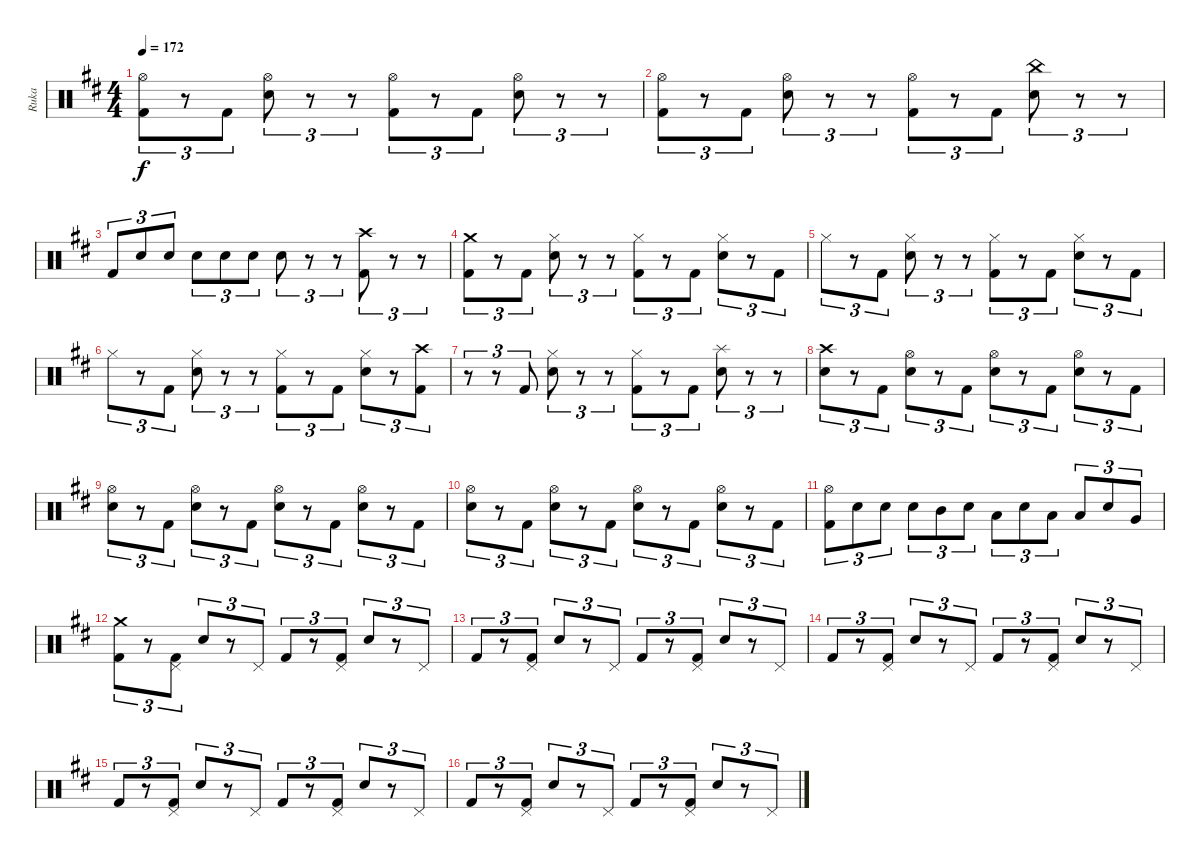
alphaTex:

\track ("Ruka" "Ruka") {instrument percussion}
\staff {score}
\articulation defaults
\ts (4 4)
\tempo 172
\clef neutral
\ks bminor
("Kick (hit) 2" "Hi-Hat (open)").8{tu (3 2) dy f} r.8{tu (3 2)} "Kick (hit) 2".8{tu (3 2)} ("Electric Snare (hit)" "Hi-Hat (open)").8{tu (3 2)} r.8{tu (3 2)} r.8{tu (3 2)} ("Kick (hit) 2" "Hi-Hat (open)").8{tu (3 2)} r.8{tu (3 2)} "Kick (hit) 2".8{tu (3 2)} ("Electric Snare (hit)" "Hi-Hat (open)").8{tu (3 2)} r.8{tu (3 2)} r.8{tu (3 2)} |
("Kick (hit) 2" "Hi-Hat (open)").8{tu (3 2)} r.8{tu (3 2)} "Kick (hit) 2".8{tu (3 2)} ("Electric Snare (hit)" "Hi-Hat (open)").8{tu (3 2)} r.8{tu (3 2)} r.8{tu (3 2)} ("Kick (hit) 2" "Hi-Hat (open)").8{tu (3 2)} r.8{tu (3 2)} "Kick (hit) 2".8{tu (3 2)} ("Electric Snare (hit)" "China (hit)").8{tu (3 2)} r.8{tu (3 2)} r.8{tu (3 2)} |
"Kick (hit) 2".8{tu (3 2)} "Electric Snare (hit)".8{tu (3 2)} "Electric Snare (hit)".8{tu (3 2)} "Electric Snare (hit)".8{tu (3 2)} "Electric Snare (hit)".8{tu (3 2)} "Electric Snare (hit)".8{tu (3 2)} "Electric Snare (hit)".8{tu (3 2)} r.8{tu (3 2)} r.8{tu (3 2)} ("Kick (hit) 2" "Crash high (hit)").8{tu (3 2)} r.8{tu (3 2)} r.8{tu (3 2)} |
("Kick (hit) 2" "Crash medium (hit)").8{tu (3 2)} r.8{tu (3 2)} "Kick (hit) 2".8{tu (3 2)} ("Electric Snare (hit)" "Hi-Hat (closed)").8{tu (3 2)} r.8{tu (3 2)} r.8{tu (3 2)} ("Kick (hit) 2" "Hi-Hat (closed)").8{tu (3 2)} r.8{tu (3 2)} "Kick (hit) 2".8{tu (3 2)} ("Electric Snare (hit)" "Hi-Hat (closed)").8{tu (3 2)} r.8{tu (3 2)} "Kick (hit) 2".8{tu (3 2)} |
"Hi-Hat (closed)".8{tu (3 2)} r.8{tu (3 2)} "Kick (hit) 2".8{tu (3 2)} ("Electric Snare (hit)" "Hi-Hat (closed)").8{tu (3 2)} r.8{tu (3 2)} r.8{tu (3 2)} ("Kick (hit) 2" "Hi-Hat (closed)").8{tu (3 2)} r.8{tu (3 2)} "Kick (hit) 2".8{tu (3 2)} ("Electric Snare (hit)" "Hi-Hat (closed)").8{tu (3 2)} r.8{tu (3 2)} "Kick (hit) 2".8{tu (3 2)} |
"Hi-Hat (closed)".8{tu (3 2)} r.8{tu (3 2)} "Kick (hit) 2".8{tu (3 2)} ("Electric Snare (hit)" "Hi-Hat (closed)").8{tu (3 2)} r.8{tu (3 2)} r.8{tu (3 2)} ("Kick (hit) 2" "Hi-Hat (closed)").8{tu (3 2)} r.8{tu (3 2)} "Kick (hit) 2".8{tu (3 2)} ("Electric Snare (hit)" "Hi-Hat (closed)").8{tu (3 2)} r.8{tu (3 2)} ("Kick (hit) 2" "Crash high (hit)").8{tu (3 2)} |
r.8{tu (3 2)} r.8{tu (3 2)} "Kick (hit) 2".8{tu (3 2)} ("Electric Snare (hit)" "Hi-Hat (closed)").8{tu (3 2)} r.8{tu (3 2)} r.8{tu (3 2)} ("Kick (hit) 2" "Hi-Hat (closed)").8{tu (3 2)} r.8{tu (3 2)} "Kick (hit) 2".8{tu (3 2)} ("Electric Snare (hit)" "Splash (hit)").8{tu (3 2)} r.8{tu (3 2)} r.8{tu (3 2)} |
("Crash high (hit)" "Electric Snare (hit)").8{tu (3 2)} r.8{tu (3 2)} "Kick (hit) 2".8{tu (3 2)} ("Hi-Hat (open)" "Electric Snare (hit)").8{tu (3 2)} r.8{tu (3 2)} "Kick (hit) 2".8{tu (3 2)} ("Hi-Hat (open)" "Electric Snare (hit)").8{tu (3 2)} r.8{tu (3 2)} "Kick (hit) 2".8{tu (3 2)} ("Hi-Hat (open)" "Electric Snare (hit)").8{tu (3 2)} r.8{tu (3 2)} "Kick (hit) 2".8{tu (3 2)} |
("Hi-Hat (open)" "Electric Snare (hit)").8{tu (3 2)} r.8{tu (3 2)} "Kick (hit) 2".8{tu (3 2)} ("Hi-Hat (open)" "Electric Snare (hit)").8{tu (3 2)} r.8{tu (3 2)} "Kick (hit) 2".8{tu (3 2)} ("Hi-Hat (open)" "Electric Snare (hit)").8{tu (3 2)} r.8{tu (3 2)} "Kick (hit) 2".8{tu (3 2)} ("Hi-Hat (open)" "Electric Snare (hit)").8{tu (3 2)} r.8{tu (3 2)} "Kick (hit) 2".8{tu (3 2)} |
("Hi-Hat (open)" "Electric Snare (hit)").8{tu (3 2)} r.8{tu (3 2)} "Kick (hit) 2".8{tu (3 2)} ("Hi-Hat (open)" "Electric Snare (hit)").8{tu (3 2)} r.8{tu (3 2)} "Kick (hit) 2".8{tu (3 2)} ("Hi-Hat (open)" "Electric Snare (hit)").8{tu (3 2)} r.8{tu (3 2)} "Kick (hit) 2".8{tu (3 2)} ("Hi-Hat (open)" "Electric Snare (hit)").8{tu (3 2)} r.8{tu (3 2)} "Kick (hit) 2".8{tu (3 2)} |
("Kick (hit) 2" "Hi-Hat (open)").8{tu (3 2)} "Electric Snare (hit)".8{tu (3 2)} "Electric Snare (hit)".8{tu (3 2)} "Electric Snare (hit)".8{tu (3 2)} "Mid Tom (hit)".8{tu (3 2)} "Electric Snare (hit)".8{tu (3 2)} "Low Tom (hit)".8{tu (3 2)} "Electric Snare (hit)".8{tu (3 2)} "Low Tom (hit)".8{tu (3 2)} "Low Tom (hit)".8{tu (3 2)} "Electric Snare (hit)".8{tu (3 2)} "Very Low Tom (hit)".8{tu (3 2)} |
("Kick (hit) 2" "Crash medium (hit)").8{tu (3 2)} r.8{tu (3 2)} ("Kick (hit) 2" "Pedal Hi-Hat (hit)").8{tu (3 2)} "Electric Snare (hit)".8{tu (3 2)} r.8{tu (3 2)} "Pedal Hi-Hat (hit)".8{tu (3 2)} "Kick (hit) 2".8{tu (3 2)} r.8{tu (3 2)} ("Kick (hit) 2" "Pedal Hi-Hat (hit)").8{tu (3 2)} "Electric Snare (hit)".8{tu (3 2)} r.8{tu (3 2)} "Pedal Hi-Hat (hit)".8{tu (3 2)} |
"Kick (hit) 2".8{tu (3 2)} r.8{tu (3 2)} ("Kick (hit) 2" "Pedal Hi-Hat (hit)").8{tu (3 2)} "Electric Snare (hit)".8{tu (3 2)} r.8{tu (3 2)} "Pedal Hi-Hat (hit)".8{tu (3 2)} "Kick (hit) 2".8{tu (3 2)} r.8{tu (3 2)} ("Kick (hit) 2" "Pedal Hi-Hat (hit)").8{tu (3 2)} "Electric Snare (hit)".8{tu (3 2)} r.8{tu (3 2)} "Pedal Hi-Hat (hit)".8{tu (3 2)} |
"Kick (hit) 2".8{tu (3 2)} r.8{tu (3 2)} ("Kick (hit) 2" "Pedal Hi-Hat (hit)").8{tu (3 2)} "Electric Snare (hit)".8{tu (3 2)} r.8{tu (3 2)} "Pedal Hi-Hat (hit)".8{tu (3 2)} "Kick (hit) 2".8{tu (3 2)} r.8{tu (3 2)} ("Kick (hit) 2" "Pedal Hi-Hat (hit)").8{tu (3 2)} "Electric Snare (hit)".8{tu (3 2)} r.8{tu (3 2)} "Pedal Hi-Hat (hit)".8{tu (3 2)} |
"Kick (hit) 2".8{tu (3 2)} r.8{tu (3 2)} ("Kick (hit) 2" "Pedal Hi-Hat (hit)").8{tu (3 2)} "Electric Snare (hit)".8{tu (3 2)} r.8{tu (3 2)} "Pedal Hi-Hat (hit)".8{tu (3 2)} "Kick (hit) 2".8{tu (3 2)} r.8{tu (3 2)} ("Kick (hit) 2" "Pedal Hi-Hat (hit)").8{tu (3 2)} "Electric Snare (hit)".8{tu (3 2)} r.8{tu (3 2)} "Pedal Hi-Hat (hit)".8{tu (3 2)} |
"Kick (hit) 2".8{tu (3 2)} r.8{tu (3 2)} ("Kick (hit) 2" "Pedal Hi-Hat (hit)").8{tu (3 2)} "Electric Snare (hit)".8{tu (3 2)} r.8{tu (3 2)} "Pedal Hi-Hat (hit)".8{tu (3 2)} "Kick (hit) 2".8{tu (3 2)} r.8{tu (3 2)} ("Kick (hit) 2" "Pedal Hi-Hat (hit)").8{tu (3 2)} "Electric Snare (hit)".8{tu (3 2)} r.8{tu (3 2)} "Pedal Hi-Hat (hit)".8{tu (3 2)}
